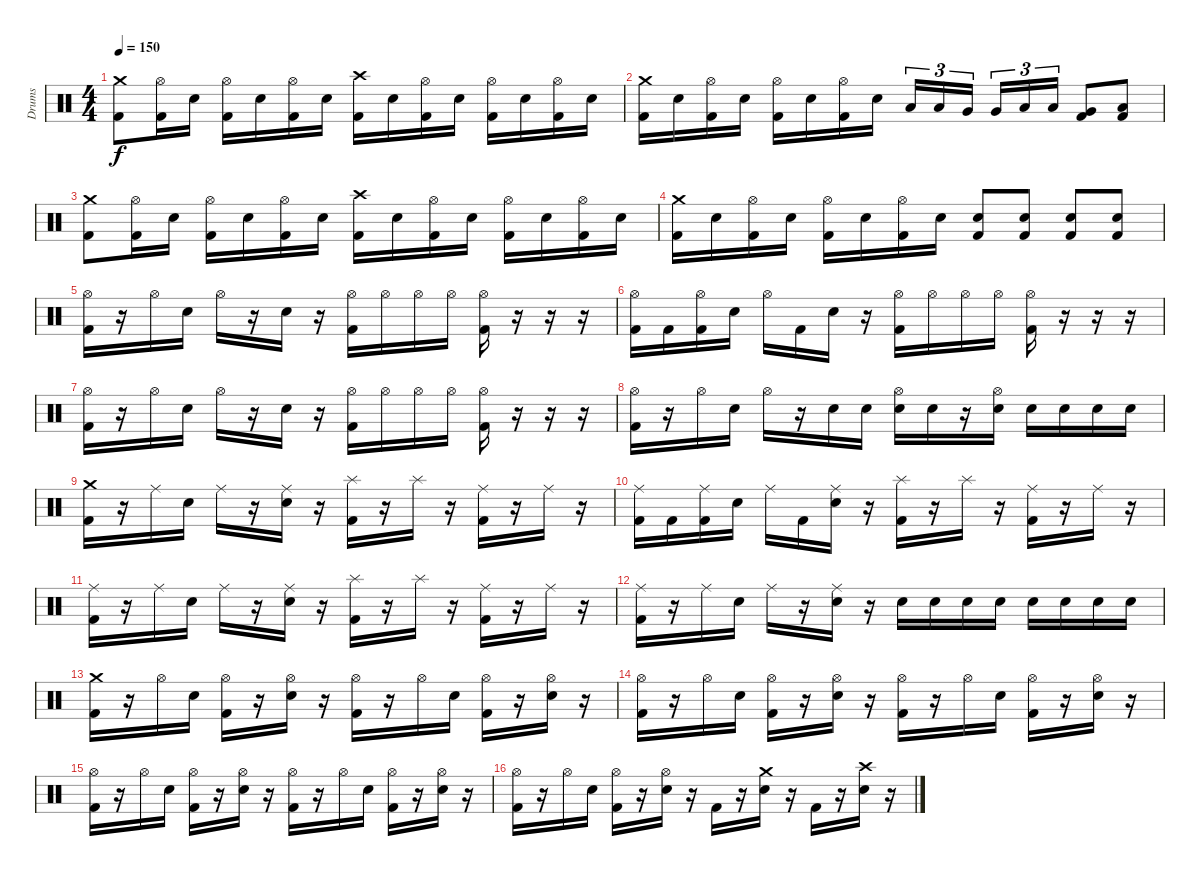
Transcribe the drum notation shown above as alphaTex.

\track ("Drums" "Drums") {instrument percussion}
\staff {score}
\articulation defaults
\ts (4 4)
\tempo 150
\clef neutral
\ks c
("Crash medium (hit)" "Kick (hit) 2").8{dy f} ("Hi-Hat (open)" "Kick (hit) 2").16 "Electric Snare (hit)".16 ("Hi-Hat (open)" "Kick (hit) 2").16 "Electric Snare (hit)".16 ("Hi-Hat (open)" "Kick (hit) 2").16 "Electric Snare (hit)".16 ("Crash high (hit)" "Kick (hit) 2").16 "Electric Snare (hit)".16 ("Hi-Hat (open)" "Kick (hit) 2").16 "Electric Snare (hit)".16 ("Hi-Hat (open)" "Kick (hit) 2").16 "Electric Snare (hit)".16 ("Hi-Hat (open)" "Kick (hit) 2").16 "Electric Snare (hit)".16 |
("Crash medium (hit)" "Kick (hit) 2").16 "Electric Snare (hit)".16 ("Hi-Hat (open)" "Kick (hit) 2").16 "Electric Snare (hit)".16 ("Hi-Hat (open)" "Kick (hit) 2").16 "Electric Snare (hit)".16 ("Hi-Hat (open)" "Kick (hit) 2").16 "Electric Snare (hit)".16 "Low Tom (hit)".16{tu (3 2)} "Low Tom (hit)".16{tu (3 2)} "Very Low Tom (hit)".16{tu (3 2)} "Very Low Tom (hit)".16{tu (3 2)} "Low Floor Tom (hit)".16{tu (3 2)} "Low Floor Tom (hit)".16{tu (3 2)} ("Very Low Tom (hit)" "Kick (hit) 2").8 ("Low Floor Tom (hit)" "Kick (hit) 2").8 |
("Crash medium (hit)" "Kick (hit) 2").8 ("Hi-Hat (open)" "Kick (hit) 2").16 "Electric Snare (hit)".16 ("Hi-Hat (open)" "Kick (hit) 2").16 "Electric Snare (hit)".16 ("Hi-Hat (open)" "Kick (hit) 2").16 "Electric Snare (hit)".16 ("Crash high (hit)" "Kick (hit) 2").16 "Electric Snare (hit)".16 ("Hi-Hat (open)" "Kick (hit) 2").16 "Electric Snare (hit)".16 ("Hi-Hat (open)" "Kick (hit) 2").16 "Electric Snare (hit)".16 ("Hi-Hat (open)" "Kick (hit) 2").16 "Electric Snare (hit)".16 |
("Crash medium (hit)" "Kick (hit) 2").16 "Electric Snare (hit)".16 ("Hi-Hat (open)" "Kick (hit) 2").16 "Electric Snare (hit)".16 ("Hi-Hat (open)" "Kick (hit) 2").16 "Electric Snare (hit)".16 ("Hi-Hat (open)" "Kick (hit) 2").16 "Electric Snare (hit)".16 ("Electric Snare (hit)" "Kick (hit) 2").8 ("Electric Snare (hit)" "Kick (hit) 2").8 ("Electric Snare (hit)" "Kick (hit) 2").8 ("Electric Snare (hit)" "Kick (hit) 2").8 |
\section ("" "")
("Hi-Hat (open)" "Kick (hit) 2").16 r.16 "Hi-Hat (open)".16 "Electric Snare (hit)".16 "Hi-Hat (open)".16 r.16 "Electric Snare (hit)".16 r.16 ("Hi-Hat (open)" "Kick (hit) 2").16 "Hi-Hat (open)".16 "Hi-Hat (open)".16 "Hi-Hat (open)".16 ("Hi-Hat (open)" "Kick (hit) 2").16 r.16 r.16 r.16 |
("Hi-Hat (open)" "Kick (hit) 2").16 "Kick (hit) 2".16 ("Hi-Hat (open)" "Kick (hit) 2").16 "Electric Snare (hit)".16 "Hi-Hat (open)".16 "Kick (hit) 2".16 "Electric Snare (hit)".16 r.16 ("Hi-Hat (open)" "Kick (hit) 2").16 "Hi-Hat (open)".16 "Hi-Hat (open)".16 "Hi-Hat (open)".16 ("Hi-Hat (open)" "Kick (hit) 2").16 r.16 r.16 r.16 |
("Hi-Hat (open)" "Kick (hit) 2").16 r.16 "Hi-Hat (open)".16 "Electric Snare (hit)".16 "Hi-Hat (open)".16 r.16 "Electric Snare (hit)".16 r.16 ("Hi-Hat (open)" "Kick (hit) 2").16 "Hi-Hat (open)".16 "Hi-Hat (open)".16 "Hi-Hat (open)".16 ("Hi-Hat (open)" "Kick (hit) 2").16 r.16 r.16 r.16 |
("Hi-Hat (open)" "Kick (hit) 2").16 r.16 "Hi-Hat (open)".16 "Electric Snare (hit)".16 "Hi-Hat (open)".16 r.16 "Electric Snare (hit)".16 "Electric Snare (hit)".16 ("Hi-Hat (open)" "Electric Snare (hit)").16 "Electric Snare (hit)".16 r.16 ("Hi-Hat (open)" "Electric Snare (hit)").16 "Electric Snare (hit)".16 "Electric Snare (hit)".16 "Electric Snare (hit)".16 "Electric Snare (hit)".16 |
("Crash medium (hit)" "Kick (hit) 2").16 r.16 "Ride (middle)".16 "Electric Snare (hit)".16 "Ride (middle)".16 r.16 ("Ride (middle)" "Electric Snare (hit)").16 r.16 ("Splash (hit)" "Kick (hit) 2").16 r.16 "Splash (hit)".16 r.16 ("Ride (middle)" "Kick (hit) 2").16 r.16 "Ride (middle)".16 r.16 |
("Ride (middle)" "Kick (hit) 2").16 "Kick (hit) 2".16 ("Ride (middle)" "Kick (hit) 2").16 "Electric Snare (hit)".16 "Ride (middle)".16 "Kick (hit) 2".16 ("Ride (middle)" "Electric Snare (hit)").16 r.16 ("Splash (hit)" "Kick (hit) 2").16 r.16 "Splash (hit)".16 r.16 ("Ride (middle)" "Kick (hit) 2").16 r.16 "Ride (middle)".16 r.16 |
("Ride (middle)" "Kick (hit) 2").16 r.16 "Ride (middle)".16 "Electric Snare (hit)".16 "Ride (middle)".16 r.16 ("Ride (middle)" "Electric Snare (hit)").16 r.16 ("Splash (hit)" "Kick (hit) 2").16 r.16 "Splash (hit)".16 r.16 ("Ride (middle)" "Kick (hit) 2").16 r.16 "Ride (middle)".16 r.16 |
("Ride (middle)" "Kick (hit) 2").16 r.16 "Ride (middle)".16 "Electric Snare (hit)".16 "Ride (middle)".16 r.16 ("Ride (middle)" "Electric Snare (hit)").16 r.16 "Electric Snare (hit)".16 "Electric Snare (hit)".16 "Electric Snare (hit)".16 "Electric Snare (hit)".16 "Electric Snare (hit)".16 "Electric Snare (hit)".16 "Electric Snare (hit)".16 "Electric Snare (hit)".16 |
\section ("" "")
("Crash medium (hit)" "Kick (hit) 2").16 r.16 "Hi-Hat (open)".16 "Electric Snare (hit)".16 ("Hi-Hat (open)" "Kick (hit) 2").16 r.16 ("Hi-Hat (open)" "Electric Snare (hit)").16 r.16 ("Hi-Hat (open)" "Kick (hit) 2").16 r.16 "Hi-Hat (open)".16 "Electric Snare (hit)".16 ("Hi-Hat (open)" "Kick (hit) 2").16 r.16 ("Hi-Hat (open)" "Electric Snare (hit)").16 r.16 |
("Hi-Hat (open)" "Kick (hit) 2").16 r.16 "Hi-Hat (open)".16 "Electric Snare (hit)".16 ("Hi-Hat (open)" "Kick (hit) 2").16 r.16 ("Hi-Hat (open)" "Electric Snare (hit)").16 r.16 ("Hi-Hat (open)" "Kick (hit) 2").16 r.16 "Hi-Hat (open)".16 "Electric Snare (hit)".16 ("Hi-Hat (open)" "Kick (hit) 2").16 r.16 ("Hi-Hat (open)" "Electric Snare (hit)").16 r.16 |
("Hi-Hat (open)" "Kick (hit) 2").16 r.16 "Hi-Hat (open)".16 "Electric Snare (hit)".16 ("Hi-Hat (open)" "Kick (hit) 2").16 r.16 ("Hi-Hat (open)" "Electric Snare (hit)").16 r.16 ("Hi-Hat (open)" "Kick (hit) 2").16 r.16 "Hi-Hat (open)".16 "Electric Snare (hit)".16 ("Hi-Hat (open)" "Kick (hit) 2").16 r.16 ("Hi-Hat (open)" "Electric Snare (hit)").16 r.16 |
("Hi-Hat (open)" "Kick (hit) 2").16 r.16 "Hi-Hat (open)".16 "Electric Snare (hit)".16 ("Hi-Hat (open)" "Kick (hit) 2").16 r.16 ("Hi-Hat (open)" "Electric Snare (hit)").16 r.16 "Kick (hit) 2".16 r.16 ("Crash medium (hit)" "Electric Snare (hit)").16 r.16 "Kick (hit) 2".16 r.16 ("Crash high (hit)" "Electric Snare (hit)").16 r.16
